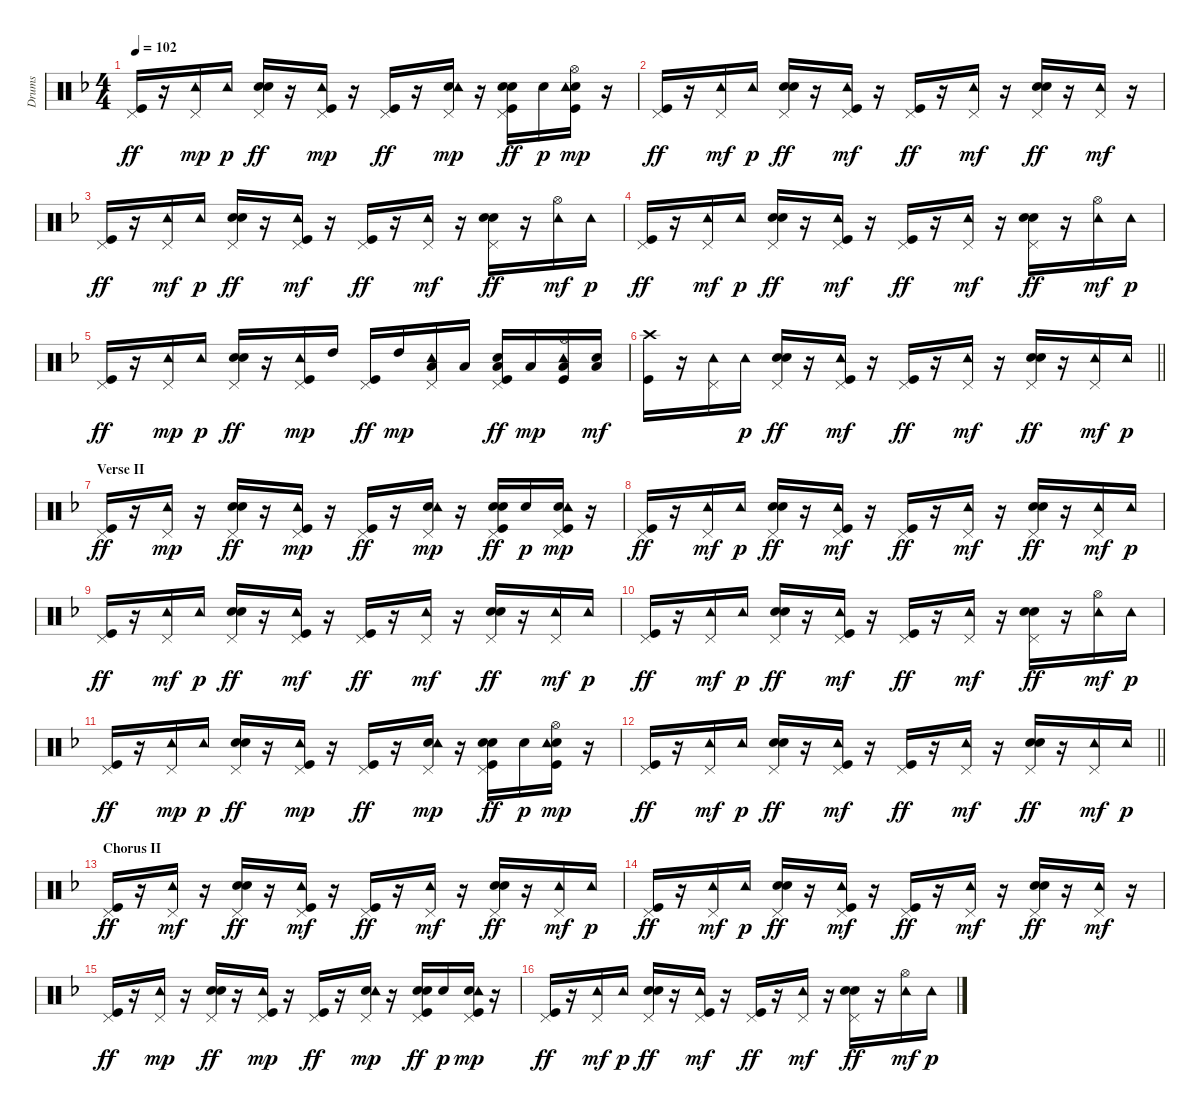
\track ("Drums   " "Drums   ") {instrument percussion}
\staff {score}
\articulation defaults
\ts (4 4)
\tempo 102
\clef neutral
\ks f
("Kick (hit)" "Pedal Hi-Hat (hit)").16{dy ff} r.16 ("Pedal Hi-Hat (hit)" "Tambourine (hit)").16{dy mp} "Tambourine (hit)".16{dy p} ("Electric Snare (hit)" "Pedal Hi-Hat (hit)" "Hand Clap (hit)").16{dy ff} r.16 ("Kick (hit)" "Pedal Hi-Hat (hit)" "Tambourine (hit)").16{dy mp} r.16 ("Kick (hit)" "Pedal Hi-Hat (hit)").16{dy ff} r.16 ("Electric Snare (hit)" "Pedal Hi-Hat (hit)" "Tambourine (hit)").16{dy mp} r.16 ("Kick (hit)" "Electric Snare (hit)" "Pedal Hi-Hat (hit)" "Hand Clap (hit)").16{dy ff} "Electric Snare (hit)".16{dy p} ("Kick (hit)" "Hi-Hat (open)" "Electric Snare (hit)" "Tambourine (hit)").16{dy mp} r.16 |
("Kick (hit)" "Pedal Hi-Hat (hit)").16{dy ff} r.16 ("Pedal Hi-Hat (hit)" "Tambourine (hit)").16{dy mf} "Tambourine (hit)".16{dy p} ("Electric Snare (hit)" "Pedal Hi-Hat (hit)" "Hand Clap (hit)").16{dy ff} r.16 ("Kick (hit)" "Pedal Hi-Hat (hit)" "Tambourine (hit)").16{dy mf} r.16 ("Kick (hit)" "Pedal Hi-Hat (hit)").16{dy ff} r.16 ("Pedal Hi-Hat (hit)" "Tambourine (hit)").16{dy mf} r.16 ("Electric Snare (hit)" "Pedal Hi-Hat (hit)" "Hand Clap (hit)").16{dy ff} r.16 ("Pedal Hi-Hat (hit)" "Tambourine (hit)").16{dy mf} r.16 |
("Kick (hit)" "Pedal Hi-Hat (hit)").16{dy ff} r.16 ("Pedal Hi-Hat (hit)" "Tambourine (hit)").16{dy mf} "Tambourine (hit)".16{dy p} ("Electric Snare (hit)" "Pedal Hi-Hat (hit)" "Hand Clap (hit)").16{dy ff} r.16 ("Kick (hit)" "Pedal Hi-Hat (hit)" "Tambourine (hit)").16{dy mf} r.16 ("Kick (hit)" "Pedal Hi-Hat (hit)").16{dy ff} r.16 ("Pedal Hi-Hat (hit)" "Tambourine (hit)").16{dy mf} r.16 ("Electric Snare (hit)" "Pedal Hi-Hat (hit)" "Hand Clap (hit)").16{dy ff} r.16 ("Hi-Hat (open)" "Tambourine (hit)").16{dy mf} "Tambourine (hit)".16{dy p} |
("Kick (hit)" "Pedal Hi-Hat (hit)").16{dy ff} r.16 ("Pedal Hi-Hat (hit)" "Tambourine (hit)").16{dy mf} "Tambourine (hit)".16{dy p} ("Electric Snare (hit)" "Pedal Hi-Hat (hit)" "Hand Clap (hit)").16{dy ff} r.16 ("Kick (hit)" "Pedal Hi-Hat (hit)" "Tambourine (hit)").16{dy mf} r.16 ("Kick (hit)" "Pedal Hi-Hat (hit)").16{dy ff} r.16 ("Pedal Hi-Hat (hit)" "Tambourine (hit)").16{dy mf} r.16 ("Electric Snare (hit)" "Pedal Hi-Hat (hit)" "Hand Clap (hit)").16{dy ff} r.16 ("Hi-Hat (open)" "Tambourine (hit)").16{dy mf} "Tambourine (hit)".16{dy p} |
("Kick (hit)" "Pedal Hi-Hat (hit)").16{dy ff} r.16 ("Pedal Hi-Hat (hit)" "Tambourine (hit)").16{dy mp} "Tambourine (hit)".16{dy p} ("Electric Snare (hit)" "Pedal Hi-Hat (hit)" "Hand Clap (hit)").16{dy ff} r.16 ("Kick (hit)" "Pedal Hi-Hat (hit)" "Tambourine (hit)").16{dy mp} "High Tom (hit)".16 ("Kick (hit)" "Pedal Hi-Hat (hit)").16{dy ff} "High Tom (hit)".16{dy mp} ("Low Tom (hit)" "Pedal Hi-Hat (hit)" "Tambourine (hit)").16 "Low Tom (hit)".16 ("Kick (hit)" "Low Tom (hit)" "Pedal Hi-Hat (hit)" "Hand Clap (hit)").16{dy ff} "Low Tom (hit)".16{dy mp} ("Kick (hit)" "Hi-Hat (open)" "Low Floor Tom (hit)" "Tambourine (hit)").16 ("Low Floor Tom (hit)" "Electric Snare (hit)").16{dy mf} |
\barLineRight lightlight
("Kick (hit)" "Crash high (hit)").16 r.16 ("Pedal Hi-Hat (hit)" "Tambourine (hit)").16 "Tambourine (hit)".16{dy p} ("Electric Snare (hit)" "Pedal Hi-Hat (hit)" "Hand Clap (hit)").16{dy ff} r.16 ("Kick (hit)" "Pedal Hi-Hat (hit)" "Tambourine (hit)").16{dy mf} r.16 ("Kick (hit)" "Pedal Hi-Hat (hit)").16{dy ff} r.16 ("Pedal Hi-Hat (hit)" "Tambourine (hit)").16{dy mf} r.16 ("Electric Snare (hit)" "Pedal Hi-Hat (hit)" "Hand Clap (hit)").16{dy ff} r.16 ("Pedal Hi-Hat (hit)" "Tambourine (hit)").16{dy mf} "Tambourine (hit)".16{dy p} |
\section ("" "Verse II")
("Kick (hit)" "Pedal Hi-Hat (hit)").16{dy ff} r.16 ("Pedal Hi-Hat (hit)" "Tambourine (hit)").16{dy mp} r.16 ("Electric Snare (hit)" "Pedal Hi-Hat (hit)" "Hand Clap (hit)").16{dy ff} r.16 ("Kick (hit)" "Pedal Hi-Hat (hit)" "Tambourine (hit)").16{dy mp} r.16 ("Kick (hit)" "Pedal Hi-Hat (hit)").16{dy ff} r.16 ("Electric Snare (hit)" "Pedal Hi-Hat (hit)" "Tambourine (hit)").16{dy mp} r.16 ("Kick (hit)" "Electric Snare (hit)" "Pedal Hi-Hat (hit)" "Hand Clap (hit)").16{dy ff} "Electric Snare (hit)".16{dy p} ("Kick (hit)" "Electric Snare (hit)" "Pedal Hi-Hat (hit)" "Tambourine (hit)").16{dy mp} r.16 |
("Kick (hit)" "Pedal Hi-Hat (hit)").16{dy ff} r.16 ("Pedal Hi-Hat (hit)" "Tambourine (hit)").16{dy mf} "Tambourine (hit)".16{dy p} ("Electric Snare (hit)" "Pedal Hi-Hat (hit)" "Hand Clap (hit)").16{dy ff} r.16 ("Kick (hit)" "Pedal Hi-Hat (hit)" "Tambourine (hit)").16{dy mf} r.16 ("Kick (hit)" "Pedal Hi-Hat (hit)").16{dy ff} r.16 ("Pedal Hi-Hat (hit)" "Tambourine (hit)").16{dy mf} r.16 ("Electric Snare (hit)" "Pedal Hi-Hat (hit)" "Hand Clap (hit)").16{dy ff} r.16 ("Pedal Hi-Hat (hit)" "Tambourine (hit)").16{dy mf} "Tambourine (hit)".16{dy p} |
("Kick (hit)" "Pedal Hi-Hat (hit)").16{dy ff} r.16 ("Pedal Hi-Hat (hit)" "Tambourine (hit)").16{dy mf} "Tambourine (hit)".16{dy p} ("Electric Snare (hit)" "Pedal Hi-Hat (hit)" "Hand Clap (hit)").16{dy ff} r.16 ("Kick (hit)" "Pedal Hi-Hat (hit)" "Tambourine (hit)").16{dy mf} r.16 ("Kick (hit)" "Pedal Hi-Hat (hit)").16{dy ff} r.16 ("Pedal Hi-Hat (hit)" "Tambourine (hit)").16{dy mf} r.16 ("Electric Snare (hit)" "Pedal Hi-Hat (hit)" "Hand Clap (hit)").16{dy ff} r.16 ("Pedal Hi-Hat (hit)" "Tambourine (hit)").16{dy mf} "Tambourine (hit)".16{dy p} |
("Kick (hit)" "Pedal Hi-Hat (hit)").16{dy ff} r.16 ("Pedal Hi-Hat (hit)" "Tambourine (hit)").16{dy mf} "Tambourine (hit)".16{dy p} ("Electric Snare (hit)" "Pedal Hi-Hat (hit)" "Hand Clap (hit)").16{dy ff} r.16 ("Kick (hit)" "Pedal Hi-Hat (hit)" "Tambourine (hit)").16{dy mf} r.16 ("Kick (hit)" "Pedal Hi-Hat (hit)").16{dy ff} r.16 ("Pedal Hi-Hat (hit)" "Tambourine (hit)").16{dy mf} r.16 ("Electric Snare (hit)" "Pedal Hi-Hat (hit)" "Hand Clap (hit)").16{dy ff} r.16 ("Hi-Hat (open)" "Tambourine (hit)").16{dy mf} "Tambourine (hit)".16{dy p} |
("Kick (hit)" "Pedal Hi-Hat (hit)").16{dy ff} r.16 ("Pedal Hi-Hat (hit)" "Tambourine (hit)").16{dy mp} "Tambourine (hit)".16{dy p} ("Electric Snare (hit)" "Pedal Hi-Hat (hit)" "Hand Clap (hit)").16{dy ff} r.16 ("Kick (hit)" "Pedal Hi-Hat (hit)" "Tambourine (hit)").16{dy mp} r.16 ("Kick (hit)" "Pedal Hi-Hat (hit)").16{dy ff} r.16 ("Electric Snare (hit)" "Pedal Hi-Hat (hit)" "Tambourine (hit)").16{dy mp} r.16 ("Kick (hit)" "Electric Snare (hit)" "Pedal Hi-Hat (hit)" "Hand Clap (hit)").16{dy ff} "Electric Snare (hit)".16{dy p} ("Kick (hit)" "Hi-Hat (open)" "Electric Snare (hit)" "Tambourine (hit)").16{dy mp} r.16 |
\barLineRight lightlight
("Kick (hit)" "Pedal Hi-Hat (hit)").16{dy ff} r.16 ("Pedal Hi-Hat (hit)" "Tambourine (hit)").16{dy mf} "Tambourine (hit)".16{dy p} ("Electric Snare (hit)" "Pedal Hi-Hat (hit)" "Hand Clap (hit)").16{dy ff} r.16 ("Kick (hit)" "Pedal Hi-Hat (hit)" "Tambourine (hit)").16{dy mf} r.16 ("Kick (hit)" "Pedal Hi-Hat (hit)").16{dy ff} r.16 ("Pedal Hi-Hat (hit)" "Tambourine (hit)").16{dy mf} r.16 ("Electric Snare (hit)" "Pedal Hi-Hat (hit)" "Hand Clap (hit)").16{dy ff} r.16 ("Pedal Hi-Hat (hit)" "Tambourine (hit)").16{dy mf} "Tambourine (hit)".16{dy p} |
\section ("" "Chorus II")
("Kick (hit)" "Pedal Hi-Hat (hit)").16{dy ff} r.16 ("Pedal Hi-Hat (hit)" "Tambourine (hit)").16{dy mf} r.16 ("Electric Snare (hit)" "Pedal Hi-Hat (hit)" "Hand Clap (hit)").16{dy ff} r.16 ("Kick (hit)" "Pedal Hi-Hat (hit)" "Tambourine (hit)").16{dy mf} r.16 ("Kick (hit)" "Pedal Hi-Hat (hit)").16{dy ff} r.16 ("Pedal Hi-Hat (hit)" "Tambourine (hit)").16{dy mf} r.16 ("Electric Snare (hit)" "Pedal Hi-Hat (hit)" "Hand Clap (hit)").16{dy ff} r.16 ("Pedal Hi-Hat (hit)" "Tambourine (hit)").16{dy mf} "Tambourine (hit)".16{dy p} |
("Kick (hit)" "Pedal Hi-Hat (hit)").16{dy ff} r.16 ("Pedal Hi-Hat (hit)" "Tambourine (hit)").16{dy mf} "Tambourine (hit)".16{dy p} ("Electric Snare (hit)" "Pedal Hi-Hat (hit)" "Hand Clap (hit)").16{dy ff} r.16 ("Kick (hit)" "Pedal Hi-Hat (hit)" "Tambourine (hit)").16{dy mf} r.16 ("Kick (hit)" "Pedal Hi-Hat (hit)").16{dy ff} r.16 ("Pedal Hi-Hat (hit)" "Tambourine (hit)").16{dy mf} r.16 ("Electric Snare (hit)" "Pedal Hi-Hat (hit)" "Hand Clap (hit)").16{dy ff} r.16 ("Pedal Hi-Hat (hit)" "Tambourine (hit)").16{dy mf} r.16 |
("Kick (hit)" "Pedal Hi-Hat (hit)").16{dy ff} r.16 ("Pedal Hi-Hat (hit)" "Tambourine (hit)").16{dy mp} r.16 ("Electric Snare (hit)" "Pedal Hi-Hat (hit)" "Hand Clap (hit)").16{dy ff} r.16 ("Kick (hit)" "Pedal Hi-Hat (hit)" "Tambourine (hit)").16{dy mp} r.16 ("Kick (hit)" "Pedal Hi-Hat (hit)").16{dy ff} r.16 ("Electric Snare (hit)" "Pedal Hi-Hat (hit)" "Tambourine (hit)").16{dy mp} r.16 ("Kick (hit)" "Electric Snare (hit)" "Pedal Hi-Hat (hit)" "Hand Clap (hit)").16{dy ff} "Electric Snare (hit)".16{dy p} ("Kick (hit)" "Electric Snare (hit)" "Pedal Hi-Hat (hit)" "Tambourine (hit)").16{dy mp} r.16 |
("Kick (hit)" "Pedal Hi-Hat (hit)").16{dy ff} r.16 ("Pedal Hi-Hat (hit)" "Tambourine (hit)").16{dy mf} "Tambourine (hit)".16{dy p} ("Electric Snare (hit)" "Pedal Hi-Hat (hit)" "Hand Clap (hit)").16{dy ff} r.16 ("Kick (hit)" "Pedal Hi-Hat (hit)" "Tambourine (hit)").16{dy mf} r.16 ("Kick (hit)" "Pedal Hi-Hat (hit)").16{dy ff} r.16 ("Pedal Hi-Hat (hit)" "Tambourine (hit)").16{dy mf} r.16 ("Electric Snare (hit)" "Pedal Hi-Hat (hit)" "Hand Clap (hit)").16{dy ff} r.16 ("Hi-Hat (open)" "Tambourine (hit)").16{dy mf} "Tambourine (hit)".16{dy p}
